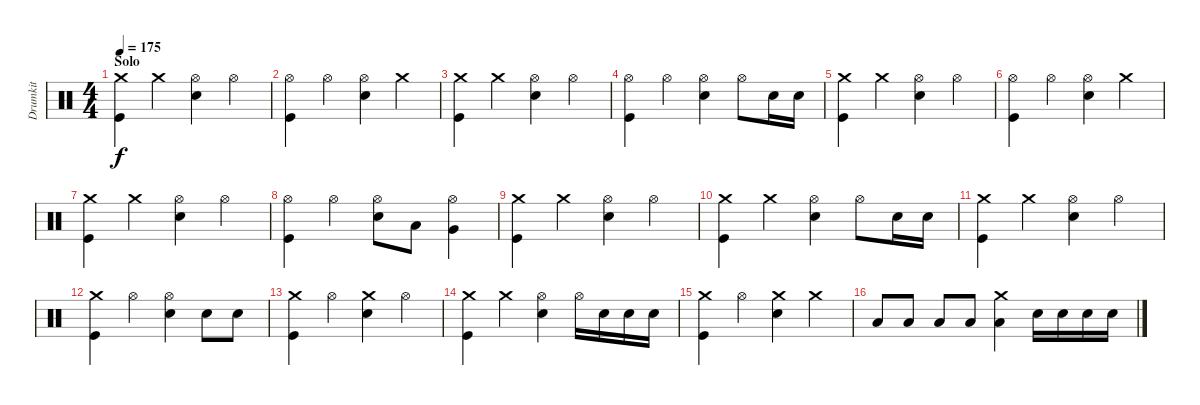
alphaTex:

\track ("Drumkit" "Drumkit") {instrument percussion}
\staff {score}
\articulation defaults
\ts (4 4)
\section ("" "Solo")
\tempo 175
\clef neutral
\ks c
("Kick (hit)" "Crash medium (hit)").4{dy f} "Crash medium (hit)".4 ("Snare (hit) 2" "Hi-Hat (open)").4 "Hi-Hat (open)".4 |
("Kick (hit)" "Hi-Hat (open)").4 "Hi-Hat (open)".4 ("Snare (hit) 2" "Hi-Hat (open)").4 "Crash medium (hit)".4 |
("Kick (hit)" "Crash medium (hit)").4 "Crash medium (hit)".4 ("Snare (hit) 2" "Hi-Hat (open)").4 "Hi-Hat (open)".4 |
("Kick (hit)" "Hi-Hat (open)").4 "Hi-Hat (open)".4 ("Snare (hit) 2" "Hi-Hat (open)").4 "Hi-Hat (open)".8 "Snare (hit) 2".16 "Snare (hit) 2".16 |
("Kick (hit)" "Crash medium (hit)").4 "Crash medium (hit)".4 ("Snare (hit) 2" "Hi-Hat (open)").4 "Hi-Hat (open)".4 |
("Kick (hit)" "Hi-Hat (open)").4 "Hi-Hat (open)".4 ("Snare (hit) 2" "Hi-Hat (open)").4 "Crash medium (hit)".4 |
("Kick (hit)" "Crash medium (hit)").4 "Crash medium (hit)".4 ("Snare (hit) 2" "Hi-Hat (open)").4 "Hi-Hat (open)".4 |
("Kick (hit)" "Hi-Hat (open)").4 "Hi-Hat (open)".4 ("Snare (hit) 2" "Hi-Hat (open)").8 "Low Tom (hit)".8 ("Very Low Tom (hit)" "Hi-Hat (open)").4 |
("Kick (hit)" "Crash medium (hit)").4 "Crash medium (hit)".4 ("Snare (hit) 2" "Hi-Hat (open)").4 "Hi-Hat (open)".4 |
("Kick (hit)" "Crash medium (hit)").4 "Crash medium (hit)".4 ("Snare (hit) 2" "Hi-Hat (open)").4 "Hi-Hat (open)".8 "Snare (hit) 2".16 "Snare (hit) 2".16 |
("Kick (hit)" "Crash medium (hit)").4 "Crash medium (hit)".4 ("Snare (hit) 2" "Hi-Hat (open)").4 "Hi-Hat (open)".4 |
("Kick (hit)" "Crash medium (hit)").4 "Hi-Hat (open)".4 ("Snare (hit) 2" "Hi-Hat (open)").4 "Snare (hit) 2".8 "Snare (hit) 2".8 |
("Kick (hit)" "Crash medium (hit)").4 "Hi-Hat (open)".4 ("Snare (hit) 2" "Crash medium (hit)").4 "Hi-Hat (open)".4 |
("Kick (hit)" "Crash medium (hit)").4 "Crash medium (hit)".4 ("Snare (hit) 2" "Hi-Hat (open)").4 "Hi-Hat (open)".16 "Snare (hit) 2".16 "Snare (hit) 2".16 "Snare (hit) 2".16 |
("Kick (hit)" "Crash medium (hit)").4 "Hi-Hat (open)".4 ("Snare (hit) 2" "Crash medium (hit)").4 "Crash medium (hit)".4 |
"Low Tom (hit)".8 "Low Tom (hit)".8 "Low Tom (hit)".8 "Low Tom (hit)".8 ("Low Tom (hit)" "Crash medium (hit)").4 "Snare (hit) 2".16 "Snare (hit) 2".16 "Snare (hit) 2".16 "Snare (hit) 2".16
